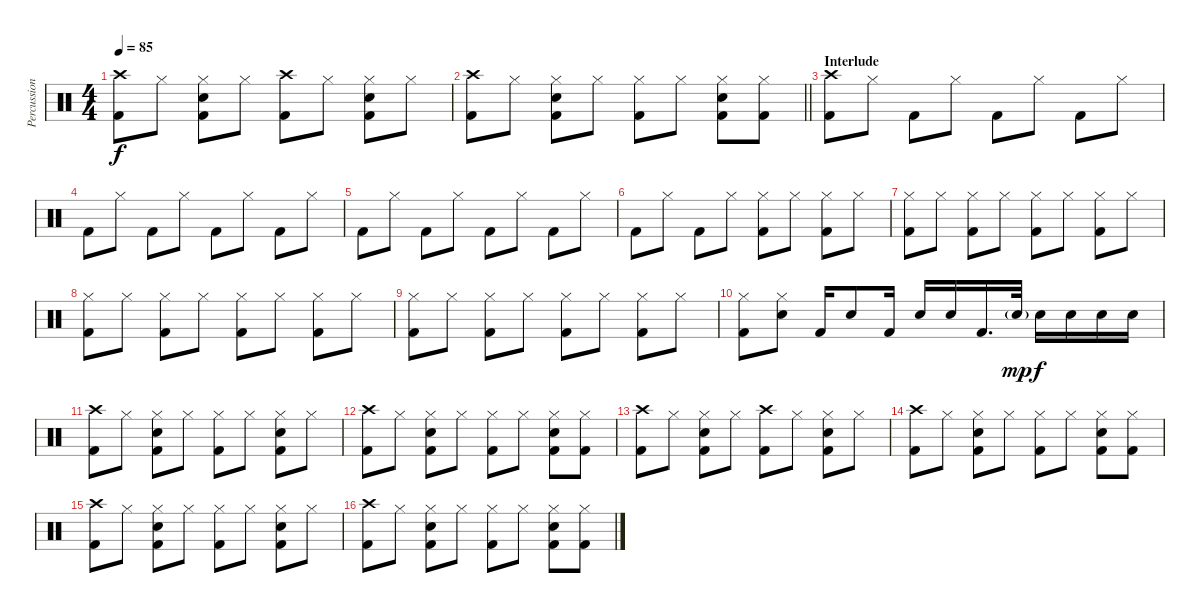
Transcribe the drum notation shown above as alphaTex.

\track ("Percussion" "Percussion") {instrument percussion}
\staff {score}
\articulation defaults
\ts (4 4)
\tempo 85
\clef neutral
\ks c
("Crash high (hit)" "Kick (hit) 2").8{dy f} "Hi-Hat (closed)".8 ("Hi-Hat (closed)" "Electric Snare (hit)" "Kick (hit) 2").8 "Hi-Hat (closed)".8 ("Crash high (hit)" "Kick (hit) 2").8 "Hi-Hat (closed)".8 ("Hi-Hat (closed)" "Electric Snare (hit)" "Kick (hit) 2").8 "Hi-Hat (closed)".8 |
\barLineRight lightlight
("Crash high (hit)" "Kick (hit) 2").8 "Hi-Hat (closed)".8 ("Hi-Hat (closed)" "Electric Snare (hit)" "Kick (hit) 2").8 "Hi-Hat (closed)".8 ("Hi-Hat (closed)" "Kick (hit) 2").8 "Hi-Hat (closed)".8 ("Hi-Hat (closed)" "Electric Snare (hit)" "Kick (hit) 2").8 ("Hi-Hat (closed)" "Kick (hit) 2").8 |
\section ("" "Interlude")
("Crash high (hit)" "Kick (hit) 2").8 "Hi-Hat (closed)".8 "Kick (hit) 2".8 "Hi-Hat (closed)".8 "Kick (hit) 2".8 "Hi-Hat (closed)".8 "Kick (hit) 2".8 "Hi-Hat (closed)".8 |
"Kick (hit) 2".8 "Hi-Hat (closed)".8 "Kick (hit) 2".8 "Hi-Hat (closed)".8 "Kick (hit) 2".8 "Hi-Hat (closed)".8 "Kick (hit) 2".8 "Hi-Hat (closed)".8 |
"Kick (hit) 2".8 "Hi-Hat (closed)".8 "Kick (hit) 2".8 "Hi-Hat (closed)".8 "Kick (hit) 2".8 "Hi-Hat (closed)".8 "Kick (hit) 2".8 "Hi-Hat (closed)".8 |
"Kick (hit) 2".8 "Hi-Hat (closed)".8 "Kick (hit) 2".8 "Hi-Hat (closed)".8 ("Hi-Hat (closed)" "Kick (hit) 2").8 "Hi-Hat (closed)".8 ("Hi-Hat (closed)" "Kick (hit) 2").8 "Hi-Hat (closed)".8 |
("Hi-Hat (closed)" "Kick (hit) 2").8 "Hi-Hat (closed)".8 ("Hi-Hat (closed)" "Kick (hit) 2").8 "Hi-Hat (closed)".8 ("Hi-Hat (closed)" "Kick (hit) 2").8 "Hi-Hat (closed)".8 ("Hi-Hat (closed)" "Kick (hit) 2").8 "Hi-Hat (closed)".8 |
("Hi-Hat (closed)" "Kick (hit) 2").8 "Hi-Hat (closed)".8 ("Hi-Hat (closed)" "Kick (hit) 2").8 "Hi-Hat (closed)".8 ("Hi-Hat (closed)" "Kick (hit) 2").8 "Hi-Hat (closed)".8 ("Hi-Hat (closed)" "Kick (hit) 2").8 "Hi-Hat (closed)".8 |
("Hi-Hat (closed)" "Kick (hit) 2").8 "Hi-Hat (closed)".8 ("Hi-Hat (closed)" "Kick (hit) 2").8 "Hi-Hat (closed)".8 ("Hi-Hat (closed)" "Kick (hit) 2").8 "Hi-Hat (closed)".8 ("Hi-Hat (closed)" "Kick (hit) 2").8 "Hi-Hat (closed)".8 |
("Hi-Hat (closed)" "Kick (hit) 2").8 ("Hi-Hat (closed)" "Electric Snare (hit)").8 "Kick (hit) 2".16 "Electric Snare (hit)".8 "Kick (hit) 2".16 "Electric Snare (hit)".16 "Electric Snare (hit)".16 "Kick (hit) 2".16{d} "Electric Snare (hit)"{g}.32{dy mp} "Electric Snare (hit)".16{dy f} "Electric Snare (hit)".16 "Electric Snare (hit)".16 "Electric Snare (hit)".16 |
("Crash high (hit)" "Kick (hit) 2").8 "Hi-Hat (closed)".8 ("Hi-Hat (closed)" "Electric Snare (hit)" "Kick (hit) 2").8 "Hi-Hat (closed)".8 ("Hi-Hat (closed)" "Kick (hit) 2").8 "Hi-Hat (closed)".8 ("Hi-Hat (closed)" "Electric Snare (hit)" "Kick (hit) 2").8 "Hi-Hat (closed)".8 |
("Crash high (hit)" "Kick (hit) 2").8 "Hi-Hat (closed)".8 ("Hi-Hat (closed)" "Electric Snare (hit)" "Kick (hit) 2").8 "Hi-Hat (closed)".8 ("Hi-Hat (closed)" "Kick (hit) 2").8 "Hi-Hat (closed)".8 ("Hi-Hat (closed)" "Electric Snare (hit)" "Kick (hit) 2").8 ("Hi-Hat (closed)" "Kick (hit) 2").8 |
("Crash high (hit)" "Kick (hit) 2").8 "Hi-Hat (closed)".8 ("Hi-Hat (closed)" "Electric Snare (hit)" "Kick (hit) 2").8 "Hi-Hat (closed)".8 ("Crash high (hit)" "Kick (hit) 2").8 "Hi-Hat (closed)".8 ("Hi-Hat (closed)" "Electric Snare (hit)" "Kick (hit) 2").8 "Hi-Hat (closed)".8 |
("Crash high (hit)" "Kick (hit) 2").8 "Hi-Hat (closed)".8 ("Hi-Hat (closed)" "Electric Snare (hit)" "Kick (hit) 2").8 "Hi-Hat (closed)".8 ("Hi-Hat (closed)" "Kick (hit) 2").8 "Hi-Hat (closed)".8 ("Hi-Hat (closed)" "Electric Snare (hit)" "Kick (hit) 2").8 ("Hi-Hat (closed)" "Kick (hit) 2").8 |
("Crash high (hit)" "Kick (hit) 2").8 "Hi-Hat (closed)".8 ("Hi-Hat (closed)" "Electric Snare (hit)" "Kick (hit) 2").8 "Hi-Hat (closed)".8 ("Hi-Hat (closed)" "Kick (hit) 2").8 "Hi-Hat (closed)".8 ("Hi-Hat (closed)" "Electric Snare (hit)" "Kick (hit) 2").8 "Hi-Hat (closed)".8 |
("Crash high (hit)" "Kick (hit) 2").8 "Hi-Hat (closed)".8 ("Hi-Hat (closed)" "Electric Snare (hit)" "Kick (hit) 2").8 "Hi-Hat (closed)".8 ("Hi-Hat (closed)" "Kick (hit) 2").8 "Hi-Hat (closed)".8 ("Hi-Hat (closed)" "Electric Snare (hit)" "Kick (hit) 2").8 ("Hi-Hat (closed)" "Kick (hit) 2").8
